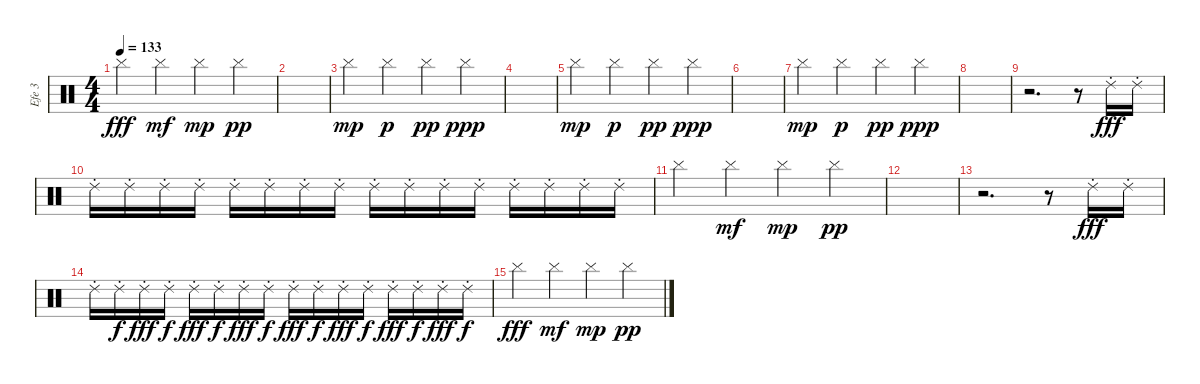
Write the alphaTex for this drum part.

\track ("Efe 3" "Efe 3") {instrument percussion}
\staff {score}
\articulation defaults
\ts (4 4)
\tempo 133
\clef neutral
\ks c "Cymbal (hit)".4{dy fff} "Cymbal (hit)".4{dy mf} "Cymbal (hit)".4{dy mp} "Cymbal (hit)".4{dy pp}
|
|
"Cymbal (hit)".4{dy mp} "Cymbal (hit)".4{dy p} "Cymbal (hit)".4{dy pp} "Cymbal (hit)".4{dy ppp} |
|
"Cymbal (hit)".4{dy mp} "Cymbal (hit)".4{dy p} "Cymbal (hit)".4{dy pp} "Cymbal (hit)".4{dy ppp} |
|
"Cymbal (hit)".4{dy mp} "Cymbal (hit)".4{dy p} "Cymbal (hit)".4{dy pp} "Cymbal (hit)".4{dy ppp} |
|
r.2{d} r.8 "Ride (choke) 2".16{dy fff} "Ride (choke) 2".16 |
"Ride (choke) 2".16 "Ride (choke) 2".16 "Ride (choke) 2".16 "Ride (choke) 2".16 "Ride (choke) 2".16 "Ride (choke) 2".16 "Ride (choke) 2".16 "Ride (choke) 2".16 "Ride (choke) 2".16 "Ride (choke) 2".16 "Ride (choke) 2".16 "Ride (choke) 2".16 "Ride (choke) 2".16 "Ride (choke) 2".16 "Ride (choke) 2".16 "Ride (choke) 2".16 |
"Cymbal (hit)".4 "Cymbal (hit)".4{dy mf} "Cymbal (hit)".4{dy mp} "Cymbal (hit)".4{dy pp} |
|
r.2{d} r.8 "Ride (choke) 2".16{dy fff} "Ride (choke) 2".16 |
"Ride (choke) 2".16 "Ride (choke) 2".16{dy f} "Ride (choke) 2".16{dy fff} "Ride (choke) 2".16{dy f} "Ride (choke) 2".16{dy fff} "Ride (choke) 2".16{dy f} "Ride (choke) 2".16{dy fff} "Ride (choke) 2".16{dy f} "Ride (choke) 2".16{dy fff} "Ride (choke) 2".16{dy f} "Ride (choke) 2".16{dy fff} "Ride (choke) 2".16{dy f} "Ride (choke) 2".16{dy fff} "Ride (choke) 2".16{dy f} "Ride (choke) 2".16{dy fff} "Ride (choke) 2".16{dy f} |
"Cymbal (hit)".4{dy fff} "Cymbal (hit)".4{dy mf} "Cymbal (hit)".4{dy mp} "Cymbal (hit)".4{dy pp}
